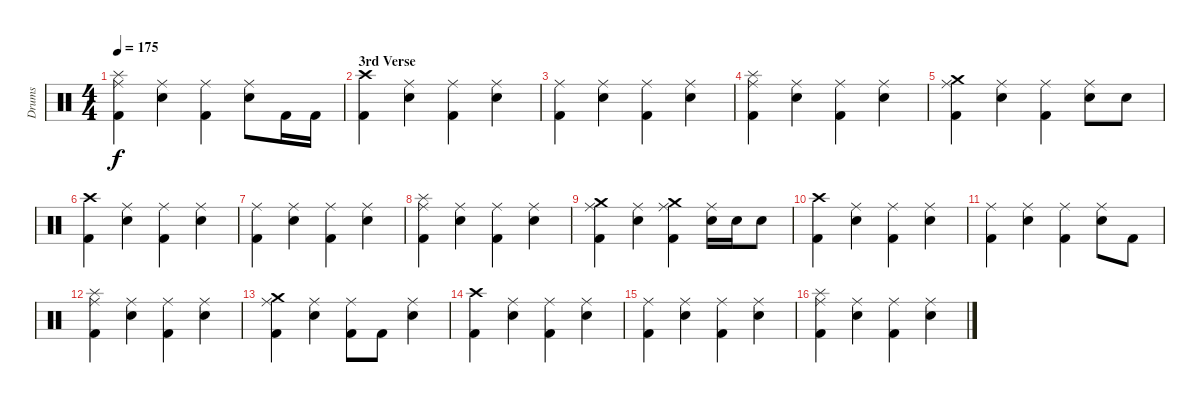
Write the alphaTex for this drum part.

\track ("Drums" "Drums") {instrument percussion}
\staff {score}
\articulation defaults
\ts (4 4)
\tempo 175
\clef neutral
\ks c
("Splash (hit)" "Ride (middle)" "Kick (hit) 2").4{dy f} ("Ride (middle)" "Snare (hit) 2").4 ("Ride (middle)" "Kick (hit) 2").4 ("Ride (middle)" "Snare (hit) 2").8 "Kick (hit) 2".16 "Kick (hit) 2".16 |
\section ("" "3rd Verse")
("Crash high (hit)" "Kick (hit) 2").4 ("Ride (middle)" "Snare (hit) 2").4 ("Ride (middle)" "Kick (hit) 2").4 ("Ride (middle)" "Snare (hit) 2").4 |
("Ride (middle)" "Kick (hit) 2").4 ("Ride (middle)" "Snare (hit) 2").4 ("Ride (middle)" "Kick (hit) 2").4 ("Ride (middle)" "Snare (hit) 2").4 |
("Splash (hit)" "Ride (middle)" "Kick (hit) 2").4 ("Ride (middle)" "Snare (hit) 2").4 ("Ride (middle)" "Kick (hit) 2").4 ("Ride (middle)" "Snare (hit) 2").4 |
("Crash medium (hit)" "Ride (middle)" "Kick (hit) 2").4 ("Ride (middle)" "Snare (hit) 2").4 ("Ride (middle)" "Kick (hit) 2").4 ("Ride (middle)" "Snare (hit) 2").8 "Snare (hit) 2".8 |
("Crash high (hit)" "Kick (hit) 2").4 ("Ride (middle)" "Snare (hit) 2").4 ("Ride (middle)" "Kick (hit) 2").4 ("Ride (middle)" "Snare (hit) 2").4 |
("Ride (middle)" "Kick (hit) 2").4 ("Ride (middle)" "Snare (hit) 2").4 ("Ride (middle)" "Kick (hit) 2").4 ("Ride (middle)" "Snare (hit) 2").4 |
("Splash (hit)" "Ride (middle)" "Kick (hit) 2").4 ("Ride (middle)" "Snare (hit) 2").4 ("Ride (middle)" "Kick (hit) 2").4 ("Ride (middle)" "Snare (hit) 2").4 |
("Crash medium (hit)" "Ride (middle)" "Kick (hit) 2").4 ("Ride (middle)" "Snare (hit) 2").4 ("Crash medium (hit)" "Ride (middle)" "Kick (hit) 2").4 ("Ride (middle)" "Snare (hit) 2").16 "Snare (hit) 2".16 "Snare (hit) 2".8 |
("Crash high (hit)" "Kick (hit) 2").4 ("Ride (middle)" "Snare (hit) 2").4 ("Ride (middle)" "Kick (hit) 2").4 ("Ride (middle)" "Snare (hit) 2").4 |
("Ride (middle)" "Kick (hit) 2").4 ("Ride (middle)" "Snare (hit) 2").4 ("Ride (middle)" "Kick (hit) 2").4 ("Ride (middle)" "Snare (hit) 2").8 "Kick (hit) 2".8 |
("Splash (hit)" "Ride (middle)" "Kick (hit) 2").4 ("Ride (middle)" "Snare (hit) 2").4 ("Ride (middle)" "Kick (hit) 2").4 ("Ride (middle)" "Snare (hit) 2").4 |
("Crash medium (hit)" "Ride (middle)" "Kick (hit) 2").4 ("Ride (middle)" "Snare (hit) 2").4 ("Ride (middle)" "Kick (hit) 2").8 "Kick (hit) 2".8 ("Ride (middle)" "Snare (hit) 2").4 |
("Crash high (hit)" "Kick (hit) 2").4 ("Ride (middle)" "Snare (hit) 2").4 ("Ride (middle)" "Kick (hit) 2").4 ("Ride (middle)" "Snare (hit) 2").4 |
("Ride (middle)" "Kick (hit) 2").4 ("Ride (middle)" "Snare (hit) 2").4 ("Ride (middle)" "Kick (hit) 2").4 ("Ride (middle)" "Snare (hit) 2").4 |
("Splash (hit)" "Ride (middle)" "Kick (hit) 2").4 ("Ride (middle)" "Snare (hit) 2").4 ("Ride (middle)" "Kick (hit) 2").4 ("Ride (middle)" "Snare (hit) 2").4
